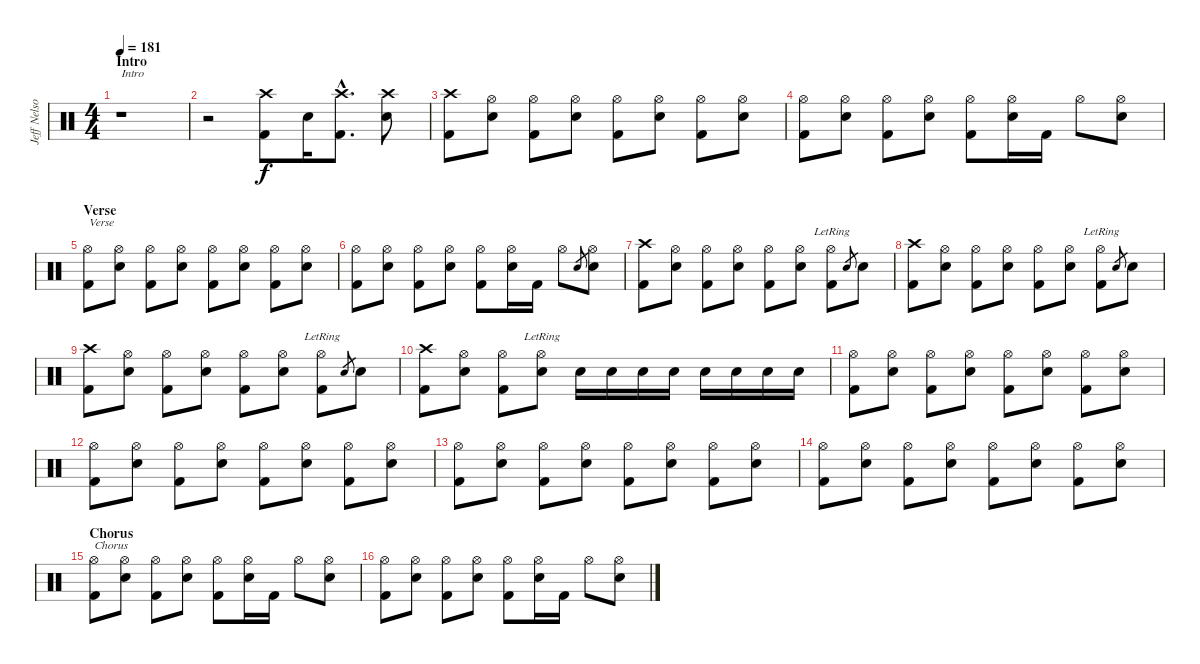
\track ("Jeff Nelson" "Jeff Nelso") {instrument percussion}
\staff {score}
\articulation defaults
\ts (4 4)
\section ("" "Intro")
\tempo 181
\clef neutral
\ks c
r.1{txt "Intro" dy f} |
r.2 ("Kick (hit) 2" "Crash high (hit)").8 "Snare (hit) 2".16 ("Kick (hit) 2"{hac} "Crash high (hit)"{hac}).8{d} ("Crash high (hit)" "Snare (hit) 2").8 |
("Kick (hit) 2" "Crash high (hit)").8 ("Snare (hit) 2" "Hi-Hat (open)").8 ("Kick (hit) 2" "Hi-Hat (open)").8 ("Snare (hit) 2" "Hi-Hat (open)").8 ("Kick (hit) 2" "Hi-Hat (open)").8 ("Snare (hit) 2" "Hi-Hat (open)").8 ("Kick (hit) 2" "Hi-Hat (open)").8 ("Snare (hit) 2" "Hi-Hat (open)").8 |
("Kick (hit) 2" "Hi-Hat (open)").8 ("Snare (hit) 2" "Hi-Hat (open)").8 ("Kick (hit) 2" "Hi-Hat (open)").8 ("Snare (hit) 2" "Hi-Hat (open)").8 ("Kick (hit) 2" "Hi-Hat (open)").8 ("Snare (hit) 2" "Hi-Hat (open)").16 "Kick (hit) 2".16 "Hi-Hat (open)".8 ("Snare (hit) 2" "Hi-Hat (open)").8 |
\section ("" "Verse")
("Kick (hit) 2" "Hi-Hat (open)").8{txt "Verse"} ("Snare (hit) 2" "Hi-Hat (open)").8 ("Kick (hit) 2" "Hi-Hat (open)").8 ("Snare (hit) 2" "Hi-Hat (open)").8 ("Kick (hit) 2" "Hi-Hat (open)").8 ("Snare (hit) 2" "Hi-Hat (open)").8 ("Kick (hit) 2" "Hi-Hat (open)").8 ("Snare (hit) 2" "Hi-Hat (open)").8 |
("Kick (hit) 2" "Hi-Hat (open)").8 ("Snare (hit) 2" "Hi-Hat (open)").8 ("Kick (hit) 2" "Hi-Hat (open)").8 ("Snare (hit) 2" "Hi-Hat (open)").8 ("Kick (hit) 2" "Hi-Hat (open)").8 ("Snare (hit) 2" "Hi-Hat (open)").16 "Kick (hit) 2".16 "Hi-Hat (open)".8 "Snare (hit) 2".8{gr} ("Snare (hit) 2" "Hi-Hat (open)").8 |
("Kick (hit) 2" "Crash high (hit)").8 ("Snare (hit) 2" "Hi-Hat (open)").8 ("Kick (hit) 2" "Hi-Hat (open)").8 ("Snare (hit) 2" "Hi-Hat (open)").8 ("Kick (hit) 2" "Hi-Hat (open)").8 ("Snare (hit) 2" "Hi-Hat (open)").8 ("Kick (hit) 2" "Hi-Hat (open)"{lr}).8 "Snare (hit) 2".8{gr} "Snare (hit) 2".8 |
("Kick (hit) 2" "Crash high (hit)").8 ("Snare (hit) 2" "Hi-Hat (open)").8 ("Kick (hit) 2" "Hi-Hat (open)").8 ("Snare (hit) 2" "Hi-Hat (open)").8 ("Kick (hit) 2" "Hi-Hat (open)").8 ("Snare (hit) 2" "Hi-Hat (open)").8 ("Kick (hit) 2" "Hi-Hat (open)"{lr}).8 "Snare (hit) 2".8{gr} "Snare (hit) 2".8 |
("Kick (hit) 2" "Crash high (hit)").8 ("Snare (hit) 2" "Hi-Hat (open)").8 ("Kick (hit) 2" "Hi-Hat (open)").8 ("Snare (hit) 2" "Hi-Hat (open)").8 ("Kick (hit) 2" "Hi-Hat (open)").8 ("Snare (hit) 2" "Hi-Hat (open)").8 ("Kick (hit) 2" "Hi-Hat (open)"{lr}).8 "Snare (hit) 2".8{gr} "Snare (hit) 2".8 |
("Kick (hit) 2" "Crash high (hit)").8 ("Snare (hit) 2" "Hi-Hat (open)").8 ("Kick (hit) 2" "Hi-Hat (open)").8 ("Snare (hit) 2" "Hi-Hat (open)"{lr}).8 "Snare (hit) 2".16 "Snare (hit) 2".16 "Snare (hit) 2".16 "Snare (hit) 2".16 "Snare (hit) 2".16 "Snare (hit) 2".16 "Snare (hit) 2".16 "Snare (hit) 2".16 |
("Kick (hit) 2" "Hi-Hat (open)").8 ("Snare (hit) 2" "Hi-Hat (open)").8 ("Kick (hit) 2" "Hi-Hat (open)").8 ("Snare (hit) 2" "Hi-Hat (open)").8 ("Kick (hit) 2" "Hi-Hat (open)").8 ("Snare (hit) 2" "Hi-Hat (open)").8 ("Kick (hit) 2" "Hi-Hat (open)").8 ("Snare (hit) 2" "Hi-Hat (open)").8 |
("Kick (hit) 2" "Hi-Hat (open)").8 ("Snare (hit) 2" "Hi-Hat (open)").8 ("Kick (hit) 2" "Hi-Hat (open)").8 ("Snare (hit) 2" "Hi-Hat (open)").8 ("Kick (hit) 2" "Hi-Hat (open)").8 ("Snare (hit) 2" "Hi-Hat (open)").8 ("Kick (hit) 2" "Hi-Hat (open)").8 ("Snare (hit) 2" "Hi-Hat (open)").8 |
("Kick (hit) 2" "Hi-Hat (open)").8 ("Snare (hit) 2" "Hi-Hat (open)").8 ("Kick (hit) 2" "Hi-Hat (open)").8 ("Snare (hit) 2" "Hi-Hat (open)").8 ("Kick (hit) 2" "Hi-Hat (open)").8 ("Snare (hit) 2" "Hi-Hat (open)").8 ("Kick (hit) 2" "Hi-Hat (open)").8 ("Snare (hit) 2" "Hi-Hat (open)").8 |
("Kick (hit) 2" "Hi-Hat (open)").8 ("Snare (hit) 2" "Hi-Hat (open)").8 ("Kick (hit) 2" "Hi-Hat (open)").8 ("Snare (hit) 2" "Hi-Hat (open)").8 ("Kick (hit) 2" "Hi-Hat (open)").8 ("Snare (hit) 2" "Hi-Hat (open)").8 ("Kick (hit) 2" "Hi-Hat (open)").8 ("Snare (hit) 2" "Hi-Hat (open)").8 |
\section ("" "Chorus")
("Kick (hit) 2" "Hi-Hat (open)").8{txt "Chorus"} ("Snare (hit) 2" "Hi-Hat (open)").8 ("Kick (hit) 2" "Hi-Hat (open)").8 ("Snare (hit) 2" "Hi-Hat (open)").8 ("Kick (hit) 2" "Hi-Hat (open)").8 ("Snare (hit) 2" "Hi-Hat (open)").16 "Kick (hit) 2".16 "Hi-Hat (open)".8 ("Snare (hit) 2" "Hi-Hat (open)").8 |
("Kick (hit) 2" "Hi-Hat (open)").8 ("Snare (hit) 2" "Hi-Hat (open)").8 ("Kick (hit) 2" "Hi-Hat (open)").8 ("Snare (hit) 2" "Hi-Hat (open)").8 ("Kick (hit) 2" "Hi-Hat (open)").8 ("Snare (hit) 2" "Hi-Hat (open)").16 "Kick (hit) 2".16 "Hi-Hat (open)".8 ("Snare (hit) 2" "Hi-Hat (open)").8
